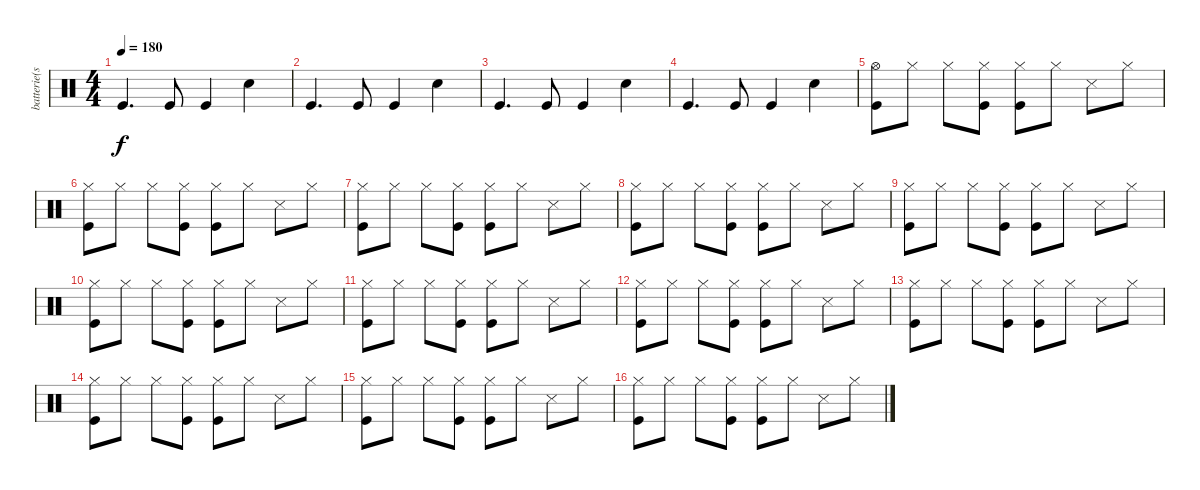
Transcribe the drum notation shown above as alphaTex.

\track ("batterie(scott)" "batterie(s") {instrument percussion}
\staff {score}
\articulation defaults
\ts (4 4)
\tempo 180
\clef neutral
\ks c "Kick (hit)".4{d dy f} "Kick (hit)".8 "Kick (hit)".4 "Snare (hit) 2".4
|
"Kick (hit)".4{d} "Kick (hit)".8 "Kick (hit)".4 "Snare (hit) 2".4 |
"Kick (hit)".4{d} "Kick (hit)".8 "Kick (hit)".4 "Snare (hit) 2".4 |
"Kick (hit)".4{d} "Kick (hit)".8 "Kick (hit)".4 "Snare (hit) 2".4 |
("Hi-Hat (open)" "Kick (hit)").8 "Hi-Hat (closed)".8 "Hi-Hat (closed)".8 ("Hi-Hat (closed)" "Kick (hit)").8 ("Hi-Hat (closed)" "Kick (hit)").8 "Hi-Hat (closed)".8 "Snare (side stick) 3".8 "Hi-Hat (closed)".8 |
("Hi-Hat (closed)" "Kick (hit)").8 "Hi-Hat (closed)".8 "Hi-Hat (closed)".8 ("Hi-Hat (closed)" "Kick (hit)").8 ("Hi-Hat (closed)" "Kick (hit)").8 "Hi-Hat (closed)".8 "Snare (side stick) 3".8 "Hi-Hat (closed)".8 |
("Hi-Hat (closed)" "Kick (hit)").8 "Hi-Hat (closed)".8 "Hi-Hat (closed)".8 ("Hi-Hat (closed)" "Kick (hit)").8 ("Hi-Hat (closed)" "Kick (hit)").8 "Hi-Hat (closed)".8 "Snare (side stick) 3".8 "Hi-Hat (closed)".8 |
("Hi-Hat (closed)" "Kick (hit)").8 "Hi-Hat (closed)".8 "Hi-Hat (closed)".8 ("Hi-Hat (closed)" "Kick (hit)").8 ("Hi-Hat (closed)" "Kick (hit)").8 "Hi-Hat (closed)".8 "Snare (side stick) 3".8 "Hi-Hat (closed)".8 |
("Hi-Hat (closed)" "Kick (hit)").8 "Hi-Hat (closed)".8 "Hi-Hat (closed)".8 ("Hi-Hat (closed)" "Kick (hit)").8 ("Hi-Hat (closed)" "Kick (hit)").8 "Hi-Hat (closed)".8 "Snare (side stick) 3".8 "Hi-Hat (closed)".8 |
("Hi-Hat (closed)" "Kick (hit)").8 "Hi-Hat (closed)".8 "Hi-Hat (closed)".8 ("Hi-Hat (closed)" "Kick (hit)").8 ("Hi-Hat (closed)" "Kick (hit)").8 "Hi-Hat (closed)".8 "Snare (side stick) 3".8 "Hi-Hat (closed)".8 |
("Hi-Hat (closed)" "Kick (hit)").8 "Hi-Hat (closed)".8 "Hi-Hat (closed)".8 ("Hi-Hat (closed)" "Kick (hit)").8 ("Hi-Hat (closed)" "Kick (hit)").8 "Hi-Hat (closed)".8 "Snare (side stick) 3".8 "Hi-Hat (closed)".8 |
("Hi-Hat (closed)" "Kick (hit)").8 "Hi-Hat (closed)".8 "Hi-Hat (closed)".8 ("Hi-Hat (closed)" "Kick (hit)").8 ("Hi-Hat (closed)" "Kick (hit)").8 "Hi-Hat (closed)".8 "Snare (side stick) 3".8 "Hi-Hat (closed)".8 |
("Hi-Hat (closed)" "Kick (hit)").8 "Hi-Hat (closed)".8 "Hi-Hat (closed)".8 ("Hi-Hat (closed)" "Kick (hit)").8 ("Hi-Hat (closed)" "Kick (hit)").8 "Hi-Hat (closed)".8 "Snare (side stick) 3".8 "Hi-Hat (closed)".8 |
("Hi-Hat (closed)" "Kick (hit)").8 "Hi-Hat (closed)".8 "Hi-Hat (closed)".8 ("Hi-Hat (closed)" "Kick (hit)").8 ("Hi-Hat (closed)" "Kick (hit)").8 "Hi-Hat (closed)".8 "Snare (side stick) 3".8 "Hi-Hat (closed)".8 |
("Hi-Hat (closed)" "Kick (hit)").8 "Hi-Hat (closed)".8 "Hi-Hat (closed)".8 ("Hi-Hat (closed)" "Kick (hit)").8 ("Hi-Hat (closed)" "Kick (hit)").8 "Hi-Hat (closed)".8 "Snare (side stick) 3".8 "Hi-Hat (closed)".8 |
("Hi-Hat (closed)" "Kick (hit)").8 "Hi-Hat (closed)".8 "Hi-Hat (closed)".8 ("Hi-Hat (closed)" "Kick (hit)").8 ("Hi-Hat (closed)" "Kick (hit)").8 "Hi-Hat (closed)".8 "Snare (side stick) 3".8 "Hi-Hat (closed)".8
